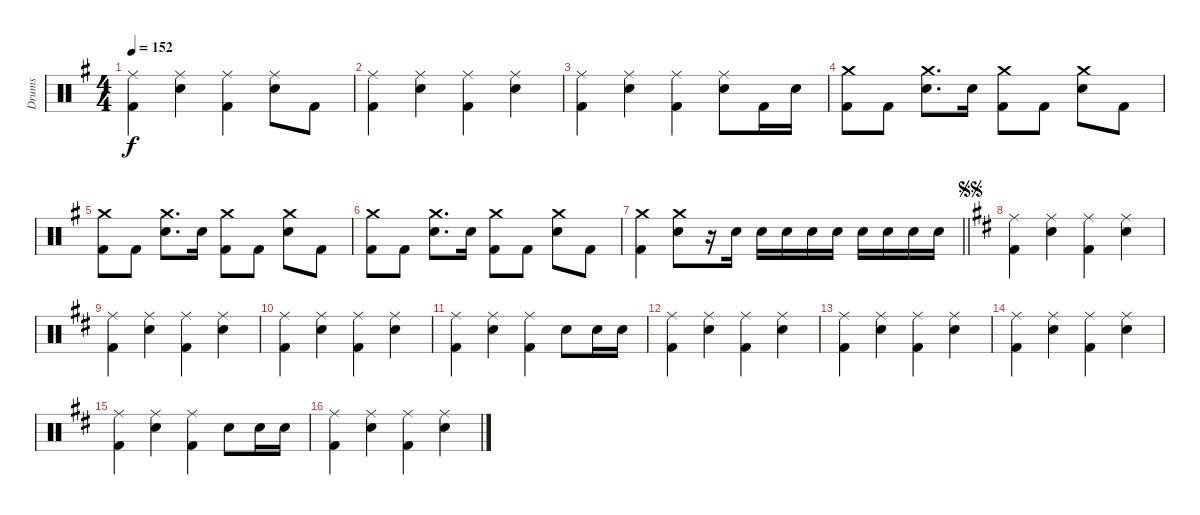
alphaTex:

\track ("Drums" "Drums") {instrument percussion}
\staff {score}
\articulation defaults
\ts (4 4)
\tempo 152
\clef neutral
\ks g
("Ride (middle)" "Kick (hit) 2").4{dy f} ("Ride (middle)" "Snare (hit) 2").4 ("Ride (middle)" "Kick (hit) 2").4 ("Ride (middle)" "Snare (hit) 2").8 "Kick (hit) 2".8 |
("Ride (middle)" "Kick (hit) 2").4 ("Ride (middle)" "Snare (hit) 2").4 ("Ride (middle)" "Kick (hit) 2").4 ("Ride (middle)" "Snare (hit) 2").4 |
("Ride (middle)" "Kick (hit) 2").4 ("Ride (middle)" "Snare (hit) 2").4 ("Ride (middle)" "Kick (hit) 2").4 ("Ride (middle)" "Snare (hit) 2").8 "Kick (hit) 2".16 "Snare (hit) 2".16 |
("Crash medium (hit)" "Kick (hit) 2").8 "Kick (hit) 2".8 ("Crash medium (hit)" "Snare (hit) 2").8{d} "Snare (hit) 2".16 ("Crash medium (hit)" "Kick (hit) 2").8 "Kick (hit) 2".8 ("Crash medium (hit)" "Snare (hit) 2").8 "Kick (hit) 2".8 |
("Crash medium (hit)" "Kick (hit) 2").8 "Kick (hit) 2".8 ("Crash medium (hit)" "Snare (hit) 2").8{d} "Snare (hit) 2".16 ("Crash medium (hit)" "Kick (hit) 2").8 "Kick (hit) 2".8 ("Crash medium (hit)" "Snare (hit) 2").8 "Kick (hit) 2".8 |
("Crash medium (hit)" "Kick (hit) 2").8 "Kick (hit) 2".8 ("Crash medium (hit)" "Snare (hit) 2").8{d} "Snare (hit) 2".16 ("Crash medium (hit)" "Kick (hit) 2").8 "Kick (hit) 2".8 ("Crash medium (hit)" "Snare (hit) 2").8 "Kick (hit) 2".8 |
\barLineRight lightlight
("Crash medium (hit)" "Kick (hit) 2").4 ("Crash medium (hit)" "Snare (hit) 2").8 r.16 "Snare (hit) 2".16 "Snare (hit) 2".16 "Snare (hit) 2".16 "Snare (hit) 2".16 "Snare (hit) 2".16 "Snare (hit) 2".16 "Snare (hit) 2".16 "Snare (hit) 2".16 "Snare (hit) 2".16 |
\jump segnosegno
\ks d
("Ride (middle)" "Kick (hit) 2").4 ("Ride (middle)" "Snare (hit) 2").4 ("Ride (middle)" "Kick (hit) 2").4 ("Ride (middle)" "Snare (hit) 2").4 |
("Ride (middle)" "Kick (hit) 2").4 ("Ride (middle)" "Snare (hit) 2").4 ("Ride (middle)" "Kick (hit) 2").4 ("Ride (middle)" "Snare (hit) 2").4 |
("Ride (middle)" "Kick (hit) 2").4 ("Ride (middle)" "Snare (hit) 2").4 ("Ride (middle)" "Kick (hit) 2").4 ("Ride (middle)" "Snare (hit) 2").4 |
("Ride (middle)" "Kick (hit) 2").4 ("Ride (middle)" "Snare (hit) 2").4 ("Ride (middle)" "Kick (hit) 2").4 "Snare (hit) 2".8 "Snare (hit) 2".16 "Snare (hit) 2".16 |
("Ride (middle)" "Kick (hit) 2").4 ("Ride (middle)" "Snare (hit) 2").4 ("Ride (middle)" "Kick (hit) 2").4 ("Ride (middle)" "Snare (hit) 2").4 |
("Ride (middle)" "Kick (hit) 2").4 ("Ride (middle)" "Snare (hit) 2").4 ("Ride (middle)" "Kick (hit) 2").4 ("Ride (middle)" "Snare (hit) 2").4 |
("Ride (middle)" "Kick (hit) 2").4 ("Ride (middle)" "Snare (hit) 2").4 ("Ride (middle)" "Kick (hit) 2").4 ("Ride (middle)" "Snare (hit) 2").4 |
("Ride (middle)" "Kick (hit) 2").4 ("Ride (middle)" "Snare (hit) 2").4 ("Ride (middle)" "Kick (hit) 2").4 "Snare (hit) 2".8 "Snare (hit) 2".16 "Snare (hit) 2".16 |
("Ride (middle)" "Kick (hit) 2").4 ("Ride (middle)" "Snare (hit) 2").4 ("Ride (middle)" "Kick (hit) 2").4 ("Ride (middle)" "Snare (hit) 2").4
